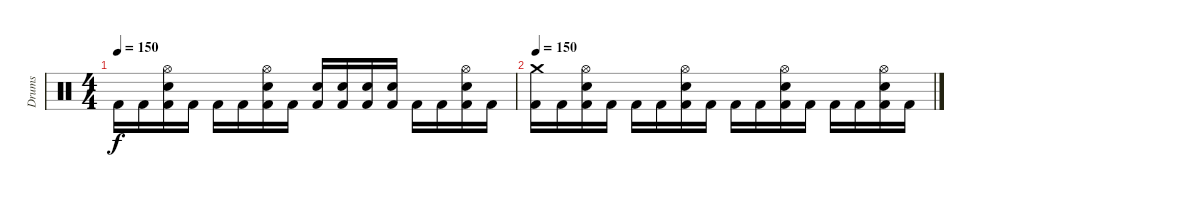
\track ("Drums" "Drums") {instrument percussion}
\staff {score}
\articulation defaults
\ts (4 4)
\tempo 150
\clef neutral
\ks c "Kick (hit) 2".16{dy f} "Kick (hit) 2".16
("Snare (hit) 2" "Hi-Hat (open)" "Kick (hit) 2").16 "Kick (hit) 2".16 "Kick (hit) 2".16 "Kick (hit) 2".16 ("Snare (hit) 2" "Hi-Hat (open)" "Kick (hit) 2").16 "Kick (hit) 2".16 ("Electric Snare (hit)" "Kick (hit) 2").16 ("Electric Snare (hit)" "Kick (hit) 2").16 ("Electric Snare (hit)" "Kick (hit) 2").16 ("Electric Snare (hit)" "Kick (hit) 2").16 "Kick (hit) 2".16 "Kick (hit) 2".16 ("Snare (hit) 2" "Hi-Hat (open)" "Kick (hit) 2").16 "Kick (hit) 2".16 |
\tempo 150
("Crash medium (hit)" "Kick (hit) 2").16 "Kick (hit) 2".16 ("Snare (hit) 2" "Hi-Hat (open)" "Kick (hit) 2").16 "Kick (hit) 2".16 "Kick (hit) 2".16 "Kick (hit) 2".16 ("Snare (hit) 2" "Hi-Hat (open)" "Kick (hit) 2").16 "Kick (hit) 2".16 "Kick (hit) 2".16 "Kick (hit) 2".16 ("Snare (hit) 2" "Hi-Hat (open)" "Kick (hit) 2").16 "Kick (hit) 2".16 "Kick (hit) 2".16 "Kick (hit) 2".16 ("Snare (hit) 2" "Hi-Hat (open)" "Kick (hit) 2").16 "Kick (hit) 2".16
